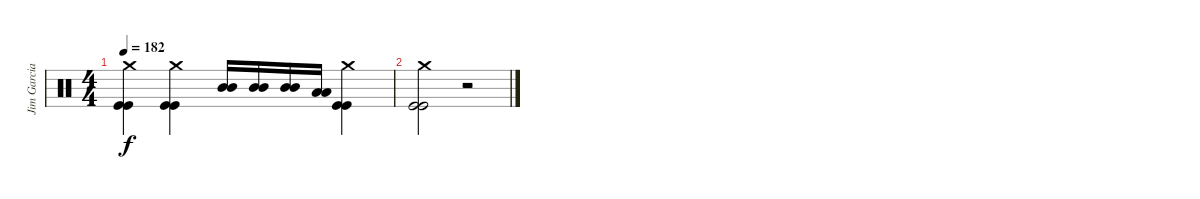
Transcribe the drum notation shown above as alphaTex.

\track ("Jim Garcia" "Jim Garcia") {instrument percussion}
\staff {score}
\articulation defaults
\ts (4 4)
\tempo 182
\clef neutral
\ks c
("Crash medium (hit)" "Kick (hit)" "Kick (hit)").4{dy f} ("Crash medium (hit)" "Kick (hit)" "Kick (hit)").4 ("Mid Tom (hit)" "Mid Tom (hit)").16 ("Mid Tom (hit)" "Mid Tom (hit)").16 ("Mid Tom (hit)" "Mid Tom (hit)").16 ("Low Tom (hit)" "Low Tom (hit)").16 ("Crash medium (hit)" "Kick (hit)" "Kick (hit)").4 |
("Crash medium (hit)" "Kick (hit)" "Kick (hit)").2 r.2
